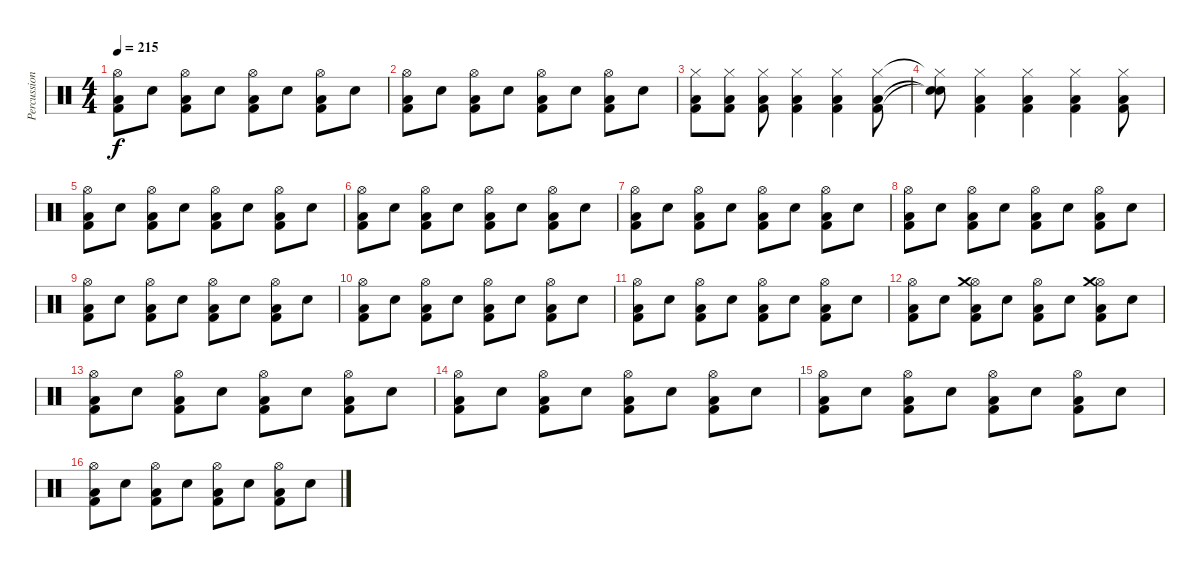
\track ("Percussion" "Percussion") {instrument percussion}
\staff {score}
\articulation defaults
\ts (4 4)
\tempo 215
\clef neutral
\ks c
("Hi-Hat (open)" "Kick (hit) 2" "Low Floor Tom (hit)").8{dy f} "Electric Snare (hit)".8 ("Hi-Hat (open)" "Kick (hit) 2" "Low Floor Tom (hit)").8 "Electric Snare (hit)".8 ("Hi-Hat (open)" "Kick (hit) 2" "Low Floor Tom (hit)").8 "Electric Snare (hit)".8 ("Hi-Hat (open)" "Kick (hit) 2" "Low Floor Tom (hit)").8 "Electric Snare (hit)".8 |
("Hi-Hat (open)" "Kick (hit) 2" "Low Floor Tom (hit)").8 "Electric Snare (hit)".8 ("Hi-Hat (open)" "Kick (hit) 2" "Low Floor Tom (hit)").8 "Electric Snare (hit)".8 ("Hi-Hat (open)" "Kick (hit) 2" "Low Floor Tom (hit)").8 "Electric Snare (hit)".8 ("Hi-Hat (open)" "Kick (hit) 2" "Low Floor Tom (hit)").8 "Electric Snare (hit)".8 |
("Hi-Hat (closed)" "Kick (hit) 2" "Low Floor Tom (hit)").8 ("Hi-Hat (closed)" "Kick (hit) 2" "Low Floor Tom (hit)").8 ("Hi-Hat (closed)" "Kick (hit) 2" "Low Floor Tom (hit)").8 ("Hi-Hat (closed)" "Kick (hit) 2" "Low Floor Tom (hit)").4 ("Hi-Hat (closed)" "Kick (hit) 2" "Low Floor Tom (hit)").4 ("Hi-Hat (closed)" "Kick (hit) 2" "Low Floor Tom (hit)").8 |
("Hi-Hat (closed)"{t} "Snare (hit)"{t} "Snare (hit)"{t}).8 ("Hi-Hat (closed)" "Kick (hit) 2" "Low Floor Tom (hit)").4 ("Hi-Hat (closed)" "Kick (hit) 2" "Low Floor Tom (hit)").4 ("Hi-Hat (closed)" "Kick (hit) 2" "Low Floor Tom (hit)").4 ("Hi-Hat (closed)" "Kick (hit) 2" "Low Floor Tom (hit)").8 |
("Hi-Hat (open)" "Kick (hit) 2" "Low Floor Tom (hit)").8 "Electric Snare (hit)".8 ("Hi-Hat (open)" "Kick (hit) 2" "Low Floor Tom (hit)").8 "Electric Snare (hit)".8 ("Hi-Hat (open)" "Kick (hit) 2" "Low Floor Tom (hit)").8 "Electric Snare (hit)".8 ("Hi-Hat (open)" "Kick (hit) 2" "Low Floor Tom (hit)").8 "Electric Snare (hit)".8 |
("Hi-Hat (open)" "Kick (hit) 2" "Low Floor Tom (hit)").8 "Electric Snare (hit)".8 ("Hi-Hat (open)" "Kick (hit) 2" "Low Floor Tom (hit)").8 "Electric Snare (hit)".8 ("Hi-Hat (open)" "Kick (hit) 2" "Low Floor Tom (hit)").8 "Electric Snare (hit)".8 ("Hi-Hat (open)" "Kick (hit) 2" "Low Floor Tom (hit)").8 "Electric Snare (hit)".8 |
("Hi-Hat (open)" "Kick (hit) 2" "Low Floor Tom (hit)").8 "Electric Snare (hit)".8 ("Hi-Hat (open)" "Kick (hit) 2" "Low Floor Tom (hit)").8 "Electric Snare (hit)".8 ("Hi-Hat (open)" "Kick (hit) 2" "Low Floor Tom (hit)").8 "Electric Snare (hit)".8 ("Hi-Hat (open)" "Kick (hit) 2" "Low Floor Tom (hit)").8 "Electric Snare (hit)".8 |
("Hi-Hat (open)" "Kick (hit) 2" "Low Floor Tom (hit)").8 "Electric Snare (hit)".8 ("Hi-Hat (open)" "Kick (hit) 2" "Low Floor Tom (hit)").8 "Electric Snare (hit)".8 ("Hi-Hat (open)" "Kick (hit) 2" "Low Floor Tom (hit)").8 "Electric Snare (hit)".8 ("Hi-Hat (open)" "Kick (hit) 2" "Low Floor Tom (hit)").8 "Electric Snare (hit)".8 |
("Hi-Hat (open)" "Kick (hit) 2" "Low Floor Tom (hit)").8 "Electric Snare (hit)".8 ("Hi-Hat (open)" "Kick (hit) 2" "Low Floor Tom (hit)").8 "Electric Snare (hit)".8 ("Hi-Hat (open)" "Kick (hit) 2" "Low Floor Tom (hit)").8 "Electric Snare (hit)".8 ("Hi-Hat (open)" "Kick (hit) 2" "Low Floor Tom (hit)").8 "Electric Snare (hit)".8 |
("Hi-Hat (open)" "Kick (hit) 2" "Low Floor Tom (hit)").8 "Electric Snare (hit)".8 ("Hi-Hat (open)" "Kick (hit) 2" "Low Floor Tom (hit)").8 "Electric Snare (hit)".8 ("Hi-Hat (open)" "Kick (hit) 2" "Low Floor Tom (hit)").8 "Electric Snare (hit)".8 ("Hi-Hat (open)" "Kick (hit) 2" "Low Floor Tom (hit)").8 "Electric Snare (hit)".8 |
("Hi-Hat (open)" "Kick (hit) 2" "Low Floor Tom (hit)").8 "Electric Snare (hit)".8 ("Hi-Hat (open)" "Kick (hit) 2" "Low Floor Tom (hit)").8 "Electric Snare (hit)".8 ("Hi-Hat (open)" "Kick (hit) 2" "Low Floor Tom (hit)").8 "Electric Snare (hit)".8 ("Hi-Hat (open)" "Kick (hit) 2" "Low Floor Tom (hit)").8 "Electric Snare (hit)".8 |
("Hi-Hat (open)" "Kick (hit) 2" "Low Floor Tom (hit)").8 "Electric Snare (hit)".8 ("Hi-Hat (open)" "Crash medium (hit)" "Kick (hit) 2" "Low Floor Tom (hit)").8 "Electric Snare (hit)".8 ("Hi-Hat (open)" "Kick (hit) 2" "Low Floor Tom (hit)").8 "Electric Snare (hit)".8 ("Hi-Hat (open)" "Crash medium (hit)" "Kick (hit) 2" "Low Floor Tom (hit)").8 "Electric Snare (hit)".8 |
("Hi-Hat (open)" "Kick (hit) 2" "Low Floor Tom (hit)").8 "Electric Snare (hit)".8 ("Hi-Hat (open)" "Kick (hit) 2" "Low Floor Tom (hit)").8 "Electric Snare (hit)".8 ("Hi-Hat (open)" "Kick (hit) 2" "Low Floor Tom (hit)").8 "Electric Snare (hit)".8 ("Hi-Hat (open)" "Kick (hit) 2" "Low Floor Tom (hit)").8 "Electric Snare (hit)".8 |
("Hi-Hat (open)" "Kick (hit) 2" "Low Floor Tom (hit)").8 "Electric Snare (hit)".8 ("Hi-Hat (open)" "Kick (hit) 2" "Low Floor Tom (hit)").8 "Electric Snare (hit)".8 ("Hi-Hat (open)" "Kick (hit) 2" "Low Floor Tom (hit)").8 "Electric Snare (hit)".8 ("Hi-Hat (open)" "Kick (hit) 2" "Low Floor Tom (hit)").8 "Electric Snare (hit)".8 |
("Hi-Hat (open)" "Kick (hit) 2" "Low Floor Tom (hit)").8 "Electric Snare (hit)".8 ("Hi-Hat (open)" "Kick (hit) 2" "Low Floor Tom (hit)").8 "Electric Snare (hit)".8 ("Hi-Hat (open)" "Kick (hit) 2" "Low Floor Tom (hit)").8 "Electric Snare (hit)".8 ("Hi-Hat (open)" "Kick (hit) 2" "Low Floor Tom (hit)").8 "Electric Snare (hit)".8 |
("Hi-Hat (open)" "Kick (hit) 2" "Low Floor Tom (hit)").8 "Electric Snare (hit)".8 ("Hi-Hat (open)" "Kick (hit) 2" "Low Floor Tom (hit)").8 "Electric Snare (hit)".8 ("Hi-Hat (open)" "Kick (hit) 2" "Low Floor Tom (hit)").8 "Electric Snare (hit)".8 ("Hi-Hat (open)" "Kick (hit) 2" "Low Floor Tom (hit)").8 "Electric Snare (hit)".8
